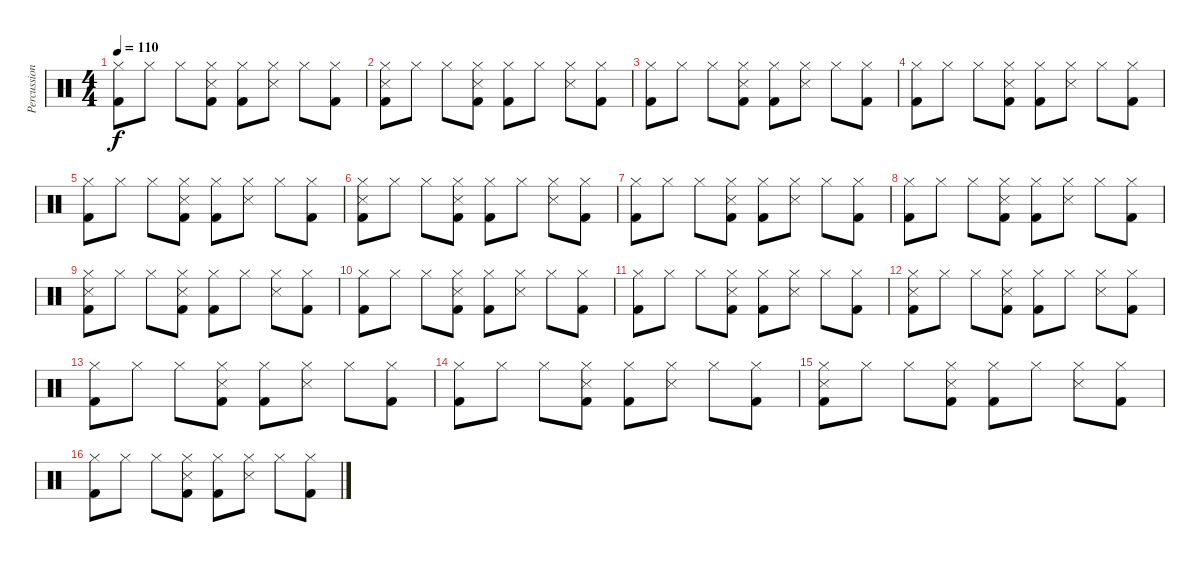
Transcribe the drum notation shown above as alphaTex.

\track ("Percussions" "Percussion") {instrument percussion}
\staff {score}
\articulation defaults
\ts (4 4)
\tempo 110
\clef neutral
\ks c
("Hi-Hat (closed)" "Kick (hit) 2").8{dy f} "Hi-Hat (closed)".8 "Hi-Hat (closed)".8 ("Hi-Hat (closed)" "Snare (side stick) 3" "Kick (hit) 2").8 ("Hi-Hat (closed)" "Kick (hit) 2").8 ("Hi-Hat (closed)" "Snare (side stick) 3").8 "Hi-Hat (closed)".8 ("Hi-Hat (closed)" "Kick (hit) 2").8 |
("Hi-Hat (closed)" "Snare (side stick) 3" "Kick (hit) 2").8 "Hi-Hat (closed)".8 "Hi-Hat (closed)".8 ("Hi-Hat (closed)" "Snare (side stick) 3" "Kick (hit) 2").8 ("Hi-Hat (closed)" "Kick (hit) 2").8 "Hi-Hat (closed)".8 ("Hi-Hat (closed)" "Snare (side stick) 3").8 ("Hi-Hat (closed)" "Kick (hit) 2").8 |
("Hi-Hat (closed)" "Kick (hit) 2").8 "Hi-Hat (closed)".8 "Hi-Hat (closed)".8 ("Hi-Hat (closed)" "Snare (side stick) 3" "Kick (hit) 2").8 ("Hi-Hat (closed)" "Kick (hit) 2").8 ("Hi-Hat (closed)" "Snare (side stick) 3").8 "Hi-Hat (closed)".8 ("Hi-Hat (closed)" "Kick (hit) 2").8 |
("Hi-Hat (closed)" "Kick (hit) 2").8 "Hi-Hat (closed)".8 "Hi-Hat (closed)".8 ("Hi-Hat (closed)" "Snare (side stick) 3" "Kick (hit) 2").8 ("Hi-Hat (closed)" "Kick (hit) 2").8 ("Hi-Hat (closed)" "Snare (side stick) 3").8 "Hi-Hat (closed)".8 ("Hi-Hat (closed)" "Kick (hit) 2").8 |
("Hi-Hat (closed)" "Kick (hit) 2").8 "Hi-Hat (closed)".8 "Hi-Hat (closed)".8 ("Hi-Hat (closed)" "Snare (side stick) 3" "Kick (hit) 2").8 ("Hi-Hat (closed)" "Kick (hit) 2").8 ("Hi-Hat (closed)" "Snare (side stick) 3").8 "Hi-Hat (closed)".8 ("Hi-Hat (closed)" "Kick (hit) 2").8 |
("Hi-Hat (closed)" "Snare (side stick) 3" "Kick (hit) 2").8 "Hi-Hat (closed)".8 "Hi-Hat (closed)".8 ("Hi-Hat (closed)" "Snare (side stick) 3" "Kick (hit) 2").8 ("Hi-Hat (closed)" "Kick (hit) 2").8 "Hi-Hat (closed)".8 ("Hi-Hat (closed)" "Snare (side stick) 3").8 ("Hi-Hat (closed)" "Kick (hit) 2").8 |
("Hi-Hat (closed)" "Kick (hit) 2").8 "Hi-Hat (closed)".8 "Hi-Hat (closed)".8 ("Hi-Hat (closed)" "Snare (side stick) 3" "Kick (hit) 2").8 ("Hi-Hat (closed)" "Kick (hit) 2").8 ("Hi-Hat (closed)" "Snare (side stick) 3").8 "Hi-Hat (closed)".8 ("Hi-Hat (closed)" "Kick (hit) 2").8 |
("Hi-Hat (closed)" "Kick (hit) 2").8 "Hi-Hat (closed)".8 "Hi-Hat (closed)".8 ("Hi-Hat (closed)" "Snare (side stick) 3" "Kick (hit) 2").8 ("Hi-Hat (closed)" "Kick (hit) 2").8 ("Hi-Hat (closed)" "Snare (side stick) 3").8 "Hi-Hat (closed)".8 ("Hi-Hat (closed)" "Kick (hit) 2").8 |
("Hi-Hat (closed)" "Snare (side stick) 3" "Kick (hit) 2").8 "Hi-Hat (closed)".8 "Hi-Hat (closed)".8 ("Hi-Hat (closed)" "Snare (side stick) 3" "Kick (hit) 2").8 ("Hi-Hat (closed)" "Kick (hit) 2").8 "Hi-Hat (closed)".8 ("Hi-Hat (closed)" "Snare (side stick) 3").8 ("Hi-Hat (closed)" "Kick (hit) 2").8 |
("Hi-Hat (closed)" "Kick (hit) 2").8 "Hi-Hat (closed)".8 "Hi-Hat (closed)".8 ("Hi-Hat (closed)" "Snare (side stick) 3" "Kick (hit) 2").8 ("Hi-Hat (closed)" "Kick (hit) 2").8 ("Hi-Hat (closed)" "Snare (side stick) 3").8 "Hi-Hat (closed)".8 ("Hi-Hat (closed)" "Kick (hit) 2").8 |
("Hi-Hat (closed)" "Kick (hit) 2").8 "Hi-Hat (closed)".8 "Hi-Hat (closed)".8 ("Hi-Hat (closed)" "Snare (side stick) 3" "Kick (hit) 2").8 ("Hi-Hat (closed)" "Kick (hit) 2").8 ("Hi-Hat (closed)" "Snare (side stick) 3").8 "Hi-Hat (closed)".8 ("Hi-Hat (closed)" "Kick (hit) 2").8 |
("Hi-Hat (closed)" "Snare (side stick) 3" "Kick (hit) 2").8 "Hi-Hat (closed)".8 "Hi-Hat (closed)".8 ("Hi-Hat (closed)" "Snare (side stick) 3" "Kick (hit) 2").8 ("Hi-Hat (closed)" "Kick (hit) 2").8 "Hi-Hat (closed)".8 ("Hi-Hat (closed)" "Snare (side stick) 3").8 ("Hi-Hat (closed)" "Kick (hit) 2").8 |
("Hi-Hat (closed)" "Kick (hit) 2").8 "Hi-Hat (closed)".8 "Hi-Hat (closed)".8 ("Hi-Hat (closed)" "Snare (side stick) 3" "Kick (hit) 2").8 ("Hi-Hat (closed)" "Kick (hit) 2").8 ("Hi-Hat (closed)" "Snare (side stick) 3").8 "Hi-Hat (closed)".8 ("Hi-Hat (closed)" "Kick (hit) 2").8 |
("Hi-Hat (closed)" "Kick (hit) 2").8 "Hi-Hat (closed)".8 "Hi-Hat (closed)".8 ("Hi-Hat (closed)" "Snare (side stick) 3" "Kick (hit) 2").8 ("Hi-Hat (closed)" "Kick (hit) 2").8 ("Hi-Hat (closed)" "Snare (side stick) 3").8 "Hi-Hat (closed)".8 ("Hi-Hat (closed)" "Kick (hit) 2").8 |
("Hi-Hat (closed)" "Snare (side stick) 3" "Kick (hit) 2").8 "Hi-Hat (closed)".8 "Hi-Hat (closed)".8 ("Hi-Hat (closed)" "Snare (side stick) 3" "Kick (hit) 2").8 ("Hi-Hat (closed)" "Kick (hit) 2").8 "Hi-Hat (closed)".8 ("Hi-Hat (closed)" "Snare (side stick) 3").8 ("Hi-Hat (closed)" "Kick (hit) 2").8 |
("Hi-Hat (closed)" "Kick (hit) 2").8 "Hi-Hat (closed)".8 "Hi-Hat (closed)".8 ("Hi-Hat (closed)" "Snare (side stick) 3" "Kick (hit) 2").8 ("Hi-Hat (closed)" "Kick (hit) 2").8 ("Hi-Hat (closed)" "Snare (side stick) 3").8 "Hi-Hat (closed)".8 ("Hi-Hat (closed)" "Kick (hit) 2").8
